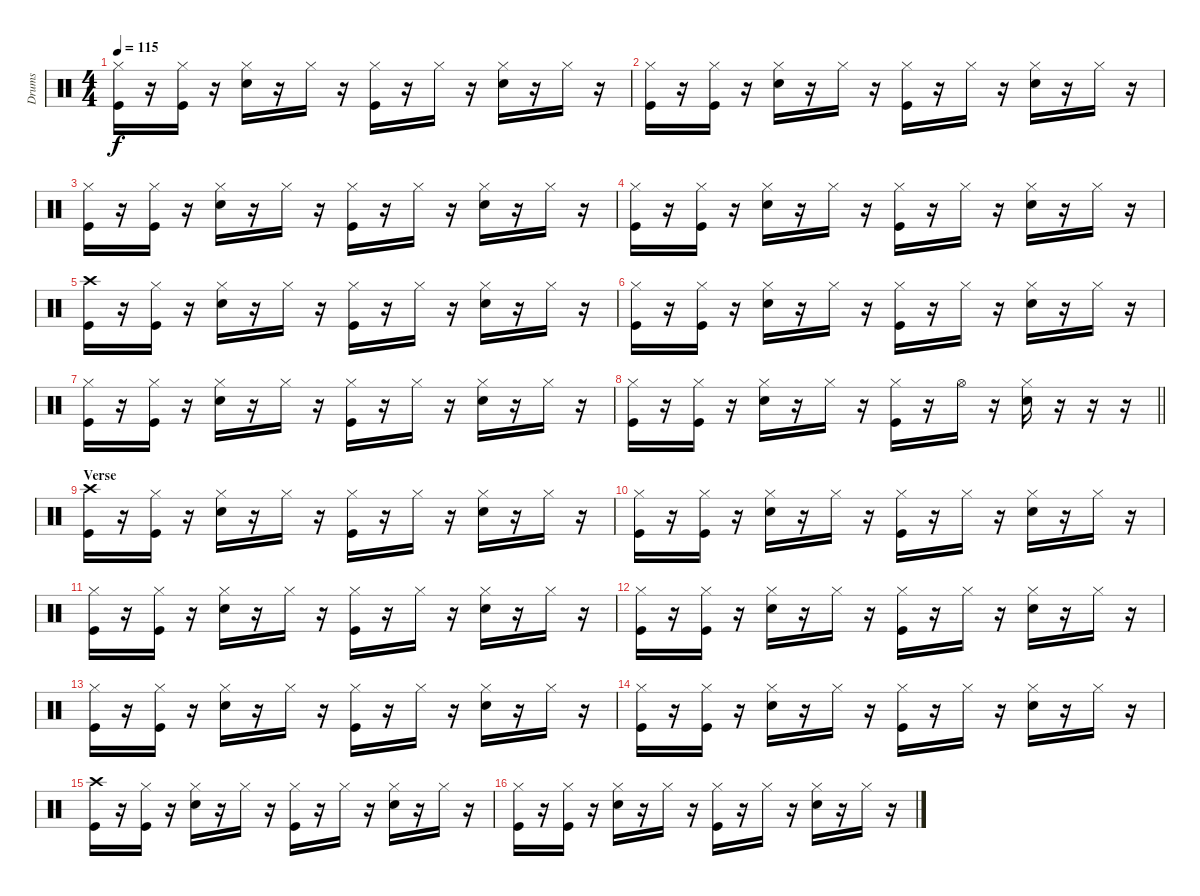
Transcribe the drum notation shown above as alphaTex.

\track ("Drums" "Drums") {instrument percussion}
\staff {score}
\articulation defaults
\ts (4 4)
\tempo 115
\clef neutral
\ks c
("Hi-Hat (closed)" "Kick (hit)").16{dy f} r.16 ("Hi-Hat (closed)" "Kick (hit)").16 r.16 ("Hi-Hat (closed)" "Snare (hit) 2").16 r.16 "Hi-Hat (closed)".16 r.16 ("Hi-Hat (closed)" "Kick (hit)").16 r.16 "Hi-Hat (closed)".16 r.16 ("Hi-Hat (closed)" "Snare (hit) 2").16 r.16 "Hi-Hat (closed)".16 r.16 |
("Hi-Hat (closed)" "Kick (hit)").16 r.16 ("Hi-Hat (closed)" "Kick (hit)").16 r.16 ("Hi-Hat (closed)" "Snare (hit) 2").16 r.16 "Hi-Hat (closed)".16 r.16 ("Hi-Hat (closed)" "Kick (hit)").16 r.16 "Hi-Hat (closed)".16 r.16 ("Hi-Hat (closed)" "Snare (hit) 2").16 r.16 "Hi-Hat (closed)".16 r.16 |
("Hi-Hat (closed)" "Kick (hit)").16 r.16 ("Hi-Hat (closed)" "Kick (hit)").16 r.16 ("Hi-Hat (closed)" "Snare (hit) 2").16 r.16 "Hi-Hat (closed)".16 r.16 ("Hi-Hat (closed)" "Kick (hit)").16 r.16 "Hi-Hat (closed)".16 r.16 ("Hi-Hat (closed)" "Snare (hit) 2").16 r.16 "Hi-Hat (closed)".16 r.16 |
("Hi-Hat (closed)" "Kick (hit)").16 r.16 ("Hi-Hat (closed)" "Kick (hit)").16 r.16 ("Hi-Hat (closed)" "Snare (hit) 2").16 r.16 "Hi-Hat (closed)".16 r.16 ("Hi-Hat (closed)" "Kick (hit)").16 r.16 "Hi-Hat (closed)".16 r.16 ("Hi-Hat (closed)" "Snare (hit) 2").16 r.16 "Hi-Hat (closed)".16 r.16 |
("Crash high (hit)" "Kick (hit)").16 r.16 ("Hi-Hat (closed)" "Kick (hit)").16 r.16 ("Hi-Hat (closed)" "Snare (hit) 2").16 r.16 "Hi-Hat (closed)".16 r.16 ("Hi-Hat (closed)" "Kick (hit)").16 r.16 "Hi-Hat (closed)".16 r.16 ("Hi-Hat (closed)" "Snare (hit) 2").16 r.16 "Hi-Hat (closed)".16 r.16 |
("Hi-Hat (closed)" "Kick (hit)").16 r.16 ("Hi-Hat (closed)" "Kick (hit)").16 r.16 ("Hi-Hat (closed)" "Snare (hit) 2").16 r.16 "Hi-Hat (closed)".16 r.16 ("Hi-Hat (closed)" "Kick (hit)").16 r.16 "Hi-Hat (closed)".16 r.16 ("Hi-Hat (closed)" "Snare (hit) 2").16 r.16 "Hi-Hat (closed)".16 r.16 |
("Hi-Hat (closed)" "Kick (hit)").16 r.16 ("Hi-Hat (closed)" "Kick (hit)").16 r.16 ("Hi-Hat (closed)" "Snare (hit) 2").16 r.16 "Hi-Hat (closed)".16 r.16 ("Hi-Hat (closed)" "Kick (hit)").16 r.16 "Hi-Hat (closed)".16 r.16 ("Hi-Hat (closed)" "Snare (hit) 2").16 r.16 "Hi-Hat (closed)".16 r.16 |
\barLineRight lightlight
("Hi-Hat (closed)" "Kick (hit)").16 r.16 ("Hi-Hat (closed)" "Kick (hit)").16 r.16 ("Hi-Hat (closed)" "Snare (hit) 2").16 r.16 "Hi-Hat (closed)".16 r.16 ("Hi-Hat (closed)" "Kick (hit)").16 r.16 "Hi-Hat (open)".16 r.16 ("Hi-Hat (closed)" "Snare (hit) 2").16 r.16 r.16 r.16 |
\section ("" "Verse")
("Crash high (hit)" "Kick (hit)").16 r.16 ("Hi-Hat (closed)" "Kick (hit)").16 r.16 ("Hi-Hat (closed)" "Snare (hit) 2").16 r.16 "Hi-Hat (closed)".16 r.16 ("Hi-Hat (closed)" "Kick (hit)").16 r.16 "Hi-Hat (closed)".16 r.16 ("Hi-Hat (closed)" "Snare (hit) 2").16 r.16 "Hi-Hat (closed)".16 r.16 |
("Hi-Hat (closed)" "Kick (hit)").16 r.16 ("Hi-Hat (closed)" "Kick (hit)").16 r.16 ("Hi-Hat (closed)" "Snare (hit) 2").16 r.16 "Hi-Hat (closed)".16 r.16 ("Hi-Hat (closed)" "Kick (hit)").16 r.16 "Hi-Hat (closed)".16 r.16 ("Hi-Hat (closed)" "Snare (hit) 2").16 r.16 "Hi-Hat (closed)".16 r.16 |
("Hi-Hat (closed)" "Kick (hit)").16 r.16 ("Hi-Hat (closed)" "Kick (hit)").16 r.16 ("Hi-Hat (closed)" "Snare (hit) 2").16 r.16 "Hi-Hat (closed)".16 r.16 ("Hi-Hat (closed)" "Kick (hit)").16 r.16 "Hi-Hat (closed)".16 r.16 ("Hi-Hat (closed)" "Snare (hit) 2").16 r.16 "Hi-Hat (closed)".16 r.16 |
("Hi-Hat (closed)" "Kick (hit)").16 r.16 ("Hi-Hat (closed)" "Kick (hit)").16 r.16 ("Hi-Hat (closed)" "Snare (hit) 2").16 r.16 "Hi-Hat (closed)".16 r.16 ("Hi-Hat (closed)" "Kick (hit)").16 r.16 "Hi-Hat (closed)".16 r.16 ("Hi-Hat (closed)" "Snare (hit) 2").16 r.16 "Hi-Hat (closed)".16 r.16 |
("Hi-Hat (closed)" "Kick (hit)").16 r.16 ("Hi-Hat (closed)" "Kick (hit)").16 r.16 ("Hi-Hat (closed)" "Snare (hit) 2").16 r.16 "Hi-Hat (closed)".16 r.16 ("Hi-Hat (closed)" "Kick (hit)").16 r.16 "Hi-Hat (closed)".16 r.16 ("Hi-Hat (closed)" "Snare (hit) 2").16 r.16 "Hi-Hat (closed)".16 r.16 |
("Hi-Hat (closed)" "Kick (hit)").16 r.16 ("Hi-Hat (closed)" "Kick (hit)").16 r.16 ("Hi-Hat (closed)" "Snare (hit) 2").16 r.16 "Hi-Hat (closed)".16 r.16 ("Hi-Hat (closed)" "Kick (hit)").16 r.16 "Hi-Hat (closed)".16 r.16 ("Hi-Hat (closed)" "Snare (hit) 2").16 r.16 "Hi-Hat (closed)".16 r.16 |
("Crash high (hit)" "Kick (hit)").16 r.16 ("Hi-Hat (closed)" "Kick (hit)").16 r.16 ("Hi-Hat (closed)" "Snare (hit) 2").16 r.16 "Hi-Hat (closed)".16 r.16 ("Hi-Hat (closed)" "Kick (hit)").16 r.16 "Hi-Hat (closed)".16 r.16 ("Hi-Hat (closed)" "Snare (hit) 2").16 r.16 "Hi-Hat (closed)".16 r.16 |
("Hi-Hat (closed)" "Kick (hit)").16 r.16 ("Hi-Hat (closed)" "Kick (hit)").16 r.16 ("Hi-Hat (closed)" "Snare (hit) 2").16 r.16 "Hi-Hat (closed)".16 r.16 ("Hi-Hat (closed)" "Kick (hit)").16 r.16 "Hi-Hat (closed)".16 r.16 ("Hi-Hat (closed)" "Snare (hit) 2").16 r.16 "Hi-Hat (closed)".16 r.16
